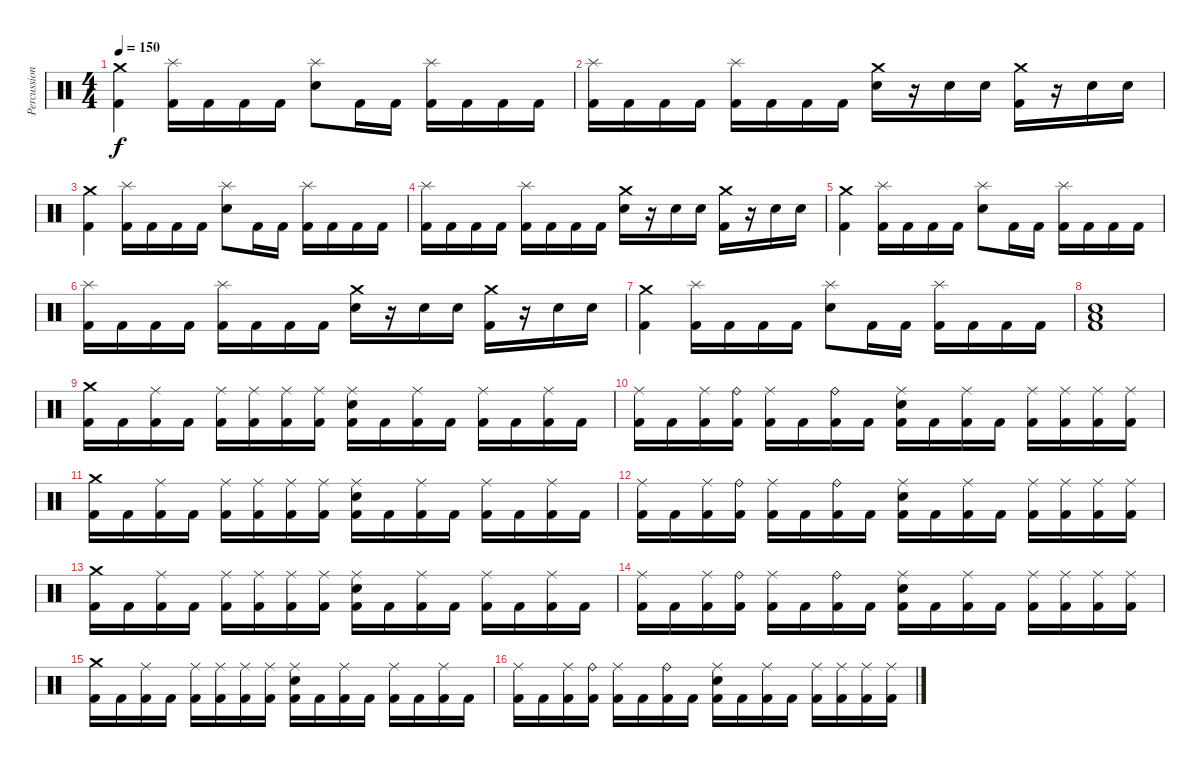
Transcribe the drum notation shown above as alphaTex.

\track ("Percussion" "Percussion") {instrument percussion}
\staff {score}
\articulation defaults
\ts (4 4)
\tempo 150
\clef neutral
\ks c
("Crash medium (hit)" "Kick (hit) 2").4{dy f} ("Splash (hit)" "Kick (hit) 2").16 "Kick (hit) 2".16 "Kick (hit) 2".16 "Kick (hit) 2".16 ("Splash (hit)" "Snare (hit) 2").8 "Kick (hit) 2".16 "Kick (hit) 2".16 ("Splash (hit)" "Kick (hit) 2").16 "Kick (hit) 2".16 "Kick (hit) 2".16 "Kick (hit) 2".16 |
("Splash (hit)" "Kick (hit) 2").16 "Kick (hit) 2".16 "Kick (hit) 2".16 "Kick (hit) 2".16 ("Splash (hit)" "Kick (hit) 2").16 "Kick (hit) 2".16 "Kick (hit) 2".16 "Kick (hit) 2".16 ("Crash medium (hit)" "Snare (hit) 2").16 r.16 "Snare (hit) 2".16 "Snare (hit) 2".16 ("Crash medium (hit)" "Kick (hit) 2").16 r.16 "Snare (hit) 2".16 "Snare (hit) 2".16 |
("Crash medium (hit)" "Kick (hit) 2").4 ("Splash (hit)" "Kick (hit) 2").16 "Kick (hit) 2".16 "Kick (hit) 2".16 "Kick (hit) 2".16 ("Splash (hit)" "Snare (hit) 2").8 "Kick (hit) 2".16 "Kick (hit) 2".16 ("Splash (hit)" "Kick (hit) 2").16 "Kick (hit) 2".16 "Kick (hit) 2".16 "Kick (hit) 2".16 |
("Splash (hit)" "Kick (hit) 2").16 "Kick (hit) 2".16 "Kick (hit) 2".16 "Kick (hit) 2".16 ("Splash (hit)" "Kick (hit) 2").16 "Kick (hit) 2".16 "Kick (hit) 2".16 "Kick (hit) 2".16 ("Crash medium (hit)" "Snare (hit) 2").16 r.16 "Snare (hit) 2".16 "Snare (hit) 2".16 ("Crash medium (hit)" "Kick (hit) 2").16 r.16 "Snare (hit) 2".16 "Snare (hit) 2".16 |
("Crash medium (hit)" "Kick (hit) 2").4 ("Splash (hit)" "Kick (hit) 2").16 "Kick (hit) 2".16 "Kick (hit) 2".16 "Kick (hit) 2".16 ("Splash (hit)" "Snare (hit) 2").8 "Kick (hit) 2".16 "Kick (hit) 2".16 ("Splash (hit)" "Kick (hit) 2").16 "Kick (hit) 2".16 "Kick (hit) 2".16 "Kick (hit) 2".16 |
("Splash (hit)" "Kick (hit) 2").16 "Kick (hit) 2".16 "Kick (hit) 2".16 "Kick (hit) 2".16 ("Splash (hit)" "Kick (hit) 2").16 "Kick (hit) 2".16 "Kick (hit) 2".16 "Kick (hit) 2".16 ("Crash medium (hit)" "Snare (hit) 2").16 r.16 "Snare (hit) 2".16 "Snare (hit) 2".16 ("Crash medium (hit)" "Kick (hit) 2").16 r.16 "Snare (hit) 2".16 "Snare (hit) 2".16 |
("Crash medium (hit)" "Kick (hit) 2").4 ("Splash (hit)" "Kick (hit) 2").16 "Kick (hit) 2".16 "Kick (hit) 2".16 "Kick (hit) 2".16 ("Splash (hit)" "Snare (hit) 2").8 "Kick (hit) 2".16 "Kick (hit) 2".16 ("Splash (hit)" "Kick (hit) 2").16 "Kick (hit) 2".16 "Kick (hit) 2".16 "Kick (hit) 2".16 |
("Snare (hit) 2" "Low Floor Tom (hit)" "Kick (hit) 2").1 |
("Crash medium (hit)" "Kick (hit) 2").16 "Kick (hit) 2".16 ("Ride (middle)" "Kick (hit) 2").16 "Kick (hit) 2".16 ("Ride (middle)" "Kick (hit) 2").16 ("Ride (middle)" "Kick (hit) 2").16 ("Ride (middle)" "Kick (hit) 2").16 ("Ride (middle)" "Kick (hit) 2").16 ("Ride (middle)" "Snare (hit) 2" "Kick (hit) 2").16 "Kick (hit) 2".16 ("Ride (middle)" "Kick (hit) 2").16 "Kick (hit) 2".16 ("Ride (middle)" "Kick (hit) 2").16 "Kick (hit) 2".16 ("Ride (middle)" "Kick (hit) 2").16 "Kick (hit) 2".16 |
("Ride (middle)" "Kick (hit) 2").16 "Kick (hit) 2".16 ("Ride (middle)" "Kick (hit) 2").16 ("Ride (bell)" "Kick (hit) 2").16 ("Ride (middle)" "Kick (hit) 2").16 "Kick (hit) 2".16 ("Ride (bell)" "Kick (hit) 2").16 "Kick (hit) 2".16 ("Ride (middle)" "Snare (hit) 2" "Kick (hit) 2").16 "Kick (hit) 2".16 ("Ride (middle)" "Kick (hit) 2").16 "Kick (hit) 2".16 ("Ride (middle)" "Kick (hit) 2").16 ("Ride (middle)" "Kick (hit) 2").16 ("Ride (middle)" "Kick (hit) 2").16 ("Ride (middle)" "Kick (hit) 2").16 |
("Crash medium (hit)" "Kick (hit) 2").16 "Kick (hit) 2".16 ("Ride (middle)" "Kick (hit) 2").16 "Kick (hit) 2".16 ("Ride (middle)" "Kick (hit) 2").16 ("Ride (middle)" "Kick (hit) 2").16 ("Ride (middle)" "Kick (hit) 2").16 ("Ride (middle)" "Kick (hit) 2").16 ("Ride (middle)" "Snare (hit) 2" "Kick (hit) 2").16 "Kick (hit) 2".16 ("Ride (middle)" "Kick (hit) 2").16 "Kick (hit) 2".16 ("Ride (middle)" "Kick (hit) 2").16 "Kick (hit) 2".16 ("Ride (middle)" "Kick (hit) 2").16 "Kick (hit) 2".16 |
("Ride (middle)" "Kick (hit) 2").16 "Kick (hit) 2".16 ("Ride (middle)" "Kick (hit) 2").16 ("Ride (bell)" "Kick (hit) 2").16 ("Ride (middle)" "Kick (hit) 2").16 "Kick (hit) 2".16 ("Ride (bell)" "Kick (hit) 2").16 "Kick (hit) 2".16 ("Ride (middle)" "Snare (hit) 2" "Kick (hit) 2").16 "Kick (hit) 2".16 ("Ride (middle)" "Kick (hit) 2").16 "Kick (hit) 2".16 ("Ride (middle)" "Kick (hit) 2").16 ("Ride (middle)" "Kick (hit) 2").16 ("Ride (middle)" "Kick (hit) 2").16 ("Ride (middle)" "Kick (hit) 2").16 |
("Crash medium (hit)" "Kick (hit) 2").16 "Kick (hit) 2".16 ("Ride (middle)" "Kick (hit) 2").16 "Kick (hit) 2".16 ("Ride (middle)" "Kick (hit) 2").16 ("Ride (middle)" "Kick (hit) 2").16 ("Ride (middle)" "Kick (hit) 2").16 ("Ride (middle)" "Kick (hit) 2").16 ("Ride (middle)" "Snare (hit) 2" "Kick (hit) 2").16 "Kick (hit) 2".16 ("Ride (middle)" "Kick (hit) 2").16 "Kick (hit) 2".16 ("Ride (middle)" "Kick (hit) 2").16 "Kick (hit) 2".16 ("Ride (middle)" "Kick (hit) 2").16 "Kick (hit) 2".16 |
("Ride (middle)" "Kick (hit) 2").16 "Kick (hit) 2".16 ("Ride (middle)" "Kick (hit) 2").16 ("Ride (bell)" "Kick (hit) 2").16 ("Ride (middle)" "Kick (hit) 2").16 "Kick (hit) 2".16 ("Ride (bell)" "Kick (hit) 2").16 "Kick (hit) 2".16 ("Ride (middle)" "Snare (hit) 2" "Kick (hit) 2").16 "Kick (hit) 2".16 ("Ride (middle)" "Kick (hit) 2").16 "Kick (hit) 2".16 ("Ride (middle)" "Kick (hit) 2").16 ("Ride (middle)" "Kick (hit) 2").16 ("Ride (middle)" "Kick (hit) 2").16 ("Ride (middle)" "Kick (hit) 2").16 |
("Crash medium (hit)" "Kick (hit) 2").16 "Kick (hit) 2".16 ("Ride (middle)" "Kick (hit) 2").16 "Kick (hit) 2".16 ("Ride (middle)" "Kick (hit) 2").16 ("Ride (middle)" "Kick (hit) 2").16 ("Ride (middle)" "Kick (hit) 2").16 ("Ride (middle)" "Kick (hit) 2").16 ("Ride (middle)" "Snare (hit) 2" "Kick (hit) 2").16 "Kick (hit) 2".16 ("Ride (middle)" "Kick (hit) 2").16 "Kick (hit) 2".16 ("Ride (middle)" "Kick (hit) 2").16 "Kick (hit) 2".16 ("Ride (middle)" "Kick (hit) 2").16 "Kick (hit) 2".16 |
("Ride (middle)" "Kick (hit) 2").16 "Kick (hit) 2".16 ("Ride (middle)" "Kick (hit) 2").16 ("Ride (bell)" "Kick (hit) 2").16 ("Ride (middle)" "Kick (hit) 2").16 "Kick (hit) 2".16 ("Ride (bell)" "Kick (hit) 2").16 "Kick (hit) 2".16 ("Ride (middle)" "Snare (hit) 2" "Kick (hit) 2").16 "Kick (hit) 2".16 ("Ride (middle)" "Kick (hit) 2").16 "Kick (hit) 2".16 ("Ride (middle)" "Kick (hit) 2").16 ("Ride (middle)" "Kick (hit) 2").16 ("Ride (middle)" "Kick (hit) 2").16 ("Ride (middle)" "Kick (hit) 2").16
